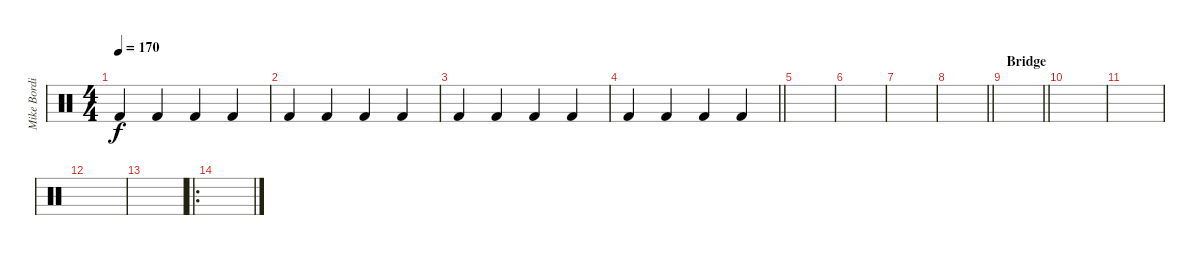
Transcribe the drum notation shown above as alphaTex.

\track ("Mike Bordin Backing" "Mike Bordi") {instrument percussion}
\staff {score}
\articulation defaults
\ts (4 4)
\tempo 170
\clef neutral
\ks c "Kick (hit) 2".4{dy f} "Kick (hit) 2".4 "Kick (hit) 2".4 "Kick (hit) 2".4
|
"Kick (hit) 2".4 "Kick (hit) 2".4 "Kick (hit) 2".4 "Kick (hit) 2".4 |
"Kick (hit) 2".4 "Kick (hit) 2".4 "Kick (hit) 2".4 "Kick (hit) 2".4 |
\barLineRight lightlight "Kick (hit) 2".4 "Kick (hit) 2".4 "Kick (hit) 2".4 "Kick (hit) 2".4
|
|
|
|
\barLineRight lightlight
|
\section ("" "Bridge")
\barLineRight lightlight
|
|
|
|
|
\ro
